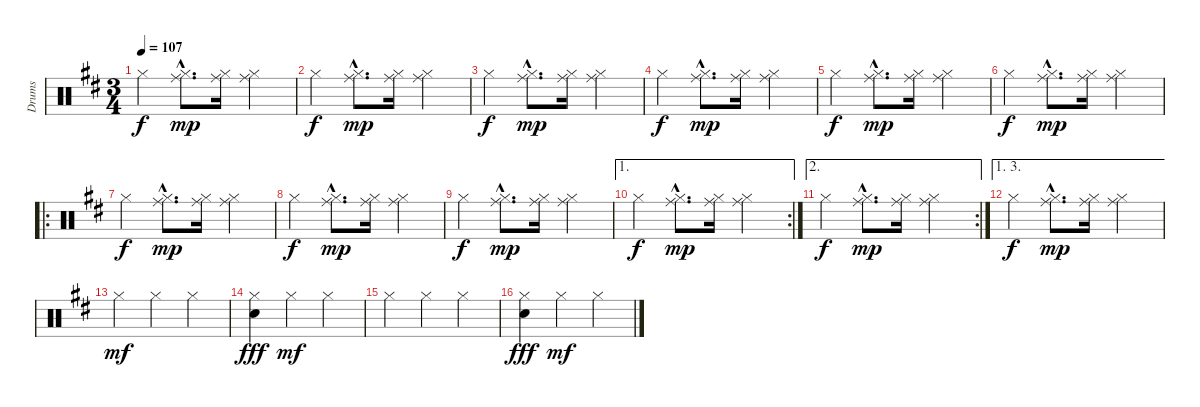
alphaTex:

\track ("Drums" "Drums") {instrument percussion}
\staff {score}
\articulation defaults
\ts (3 4)
\tempo 107
\clef neutral
\ks d "Hi-Hat (closed)".4{dy f}
("Hi-Hat (closed)"{hac} "Ride (middle)"{hac}).8{d dy mp} ("Hi-Hat (closed)" "Ride (middle)").16 ("Hi-Hat (closed)" "Ride (middle)").4 |
"Hi-Hat (closed)".4{dy f} ("Hi-Hat (closed)"{hac} "Ride (middle)"{hac}).8{d dy mp} ("Hi-Hat (closed)" "Ride (middle)").16 ("Hi-Hat (closed)" "Ride (middle)").4 |
"Hi-Hat (closed)".4{dy f} ("Hi-Hat (closed)"{hac} "Ride (middle)"{hac}).8{d dy mp} ("Hi-Hat (closed)" "Ride (middle)").16 ("Hi-Hat (closed)" "Ride (middle)").4 |
"Hi-Hat (closed)".4{dy f} ("Hi-Hat (closed)"{hac} "Ride (middle)"{hac}).8{d dy mp} ("Hi-Hat (closed)" "Ride (middle)").16 ("Hi-Hat (closed)" "Ride (middle)").4 |
"Hi-Hat (closed)".4{dy f} ("Hi-Hat (closed)"{hac} "Ride (middle)"{hac}).8{d dy mp} ("Hi-Hat (closed)" "Ride (middle)").16 ("Hi-Hat (closed)" "Ride (middle)").4 |
"Hi-Hat (closed)".4{dy f} ("Hi-Hat (closed)"{hac} "Ride (middle)"{hac}).8{d dy mp} ("Hi-Hat (closed)" "Ride (middle)").16 ("Hi-Hat (closed)" "Ride (middle)").4 |
\ro "Hi-Hat (closed)".4{dy f}
("Hi-Hat (closed)"{hac} "Ride (middle)"{hac}).8{d dy mp} ("Hi-Hat (closed)" "Ride (middle)").16 ("Hi-Hat (closed)" "Ride (middle)").4 |
"Hi-Hat (closed)".4{dy f} ("Hi-Hat (closed)"{hac} "Ride (middle)"{hac}).8{d dy mp} ("Hi-Hat (closed)" "Ride (middle)").16 ("Hi-Hat (closed)" "Ride (middle)").4 |
"Hi-Hat (closed)".4{dy f} ("Hi-Hat (closed)"{hac} "Ride (middle)"{hac}).8{d dy mp} ("Hi-Hat (closed)" "Ride (middle)").16 ("Hi-Hat (closed)" "Ride (middle)").4 |
\ae 1
\rc 2 "Hi-Hat (closed)".4{dy f}
("Hi-Hat (closed)"{hac} "Ride (middle)"{hac}).8{d dy mp} ("Hi-Hat (closed)" "Ride (middle)").16 ("Hi-Hat (closed)" "Ride (middle)").4 |
\ae 2
\rc 2 "Hi-Hat (closed)".4{dy f}
("Hi-Hat (closed)"{hac} "Ride (middle)"{hac}).8{d dy mp} ("Hi-Hat (closed)" "Ride (middle)").16 ("Hi-Hat (closed)" "Ride (middle)").4 |
\ae (1 3)
"Hi-Hat (closed)".4{dy f} ("Hi-Hat (closed)"{hac} "Ride (middle)"{hac}).8{d dy mp} ("Hi-Hat (closed)" "Ride (middle)").16 ("Hi-Hat (closed)" "Ride (middle)").4 |
"Hi-Hat (closed)".4{dy mf} "Hi-Hat (closed)".4 "Hi-Hat (closed)".4 |
("Hi-Hat (closed)" "Electric Snare (hit)").4{dy fff} "Hi-Hat (closed)".4{dy mf} "Hi-Hat (closed)".4 |
"Hi-Hat (closed)".4 "Hi-Hat (closed)".4 "Hi-Hat (closed)".4 |
("Hi-Hat (closed)" "Electric Snare (hit)").4{dy fff} "Hi-Hat (closed)".4{dy mf} "Hi-Hat (closed)".4
